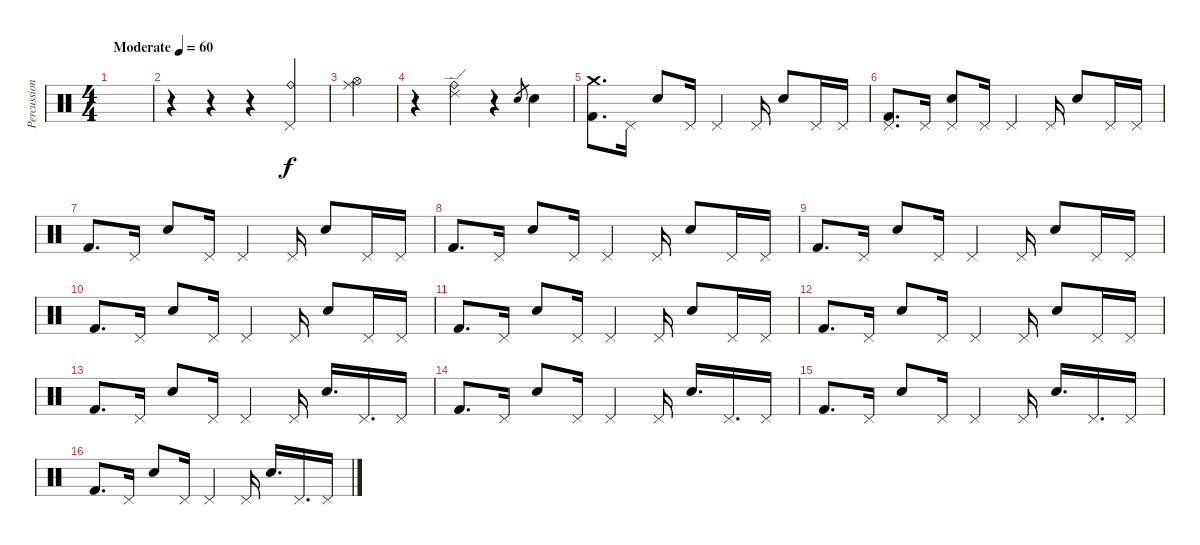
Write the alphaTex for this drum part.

\track ("Percussion" "Percussion") {instrument percussion}
\staff {score}
\articulation defaults
\ts (4 4)
\tempo (60 "Moderate")
\clef neutral
\ks c
|
r.4 r.4 r.4 ("Pedal Hi-Hat (hit)" "Ride (bell)").4 |
("Ride (middle)" "Hi-Hat (open)").4 |
r.4 ("Ride (edge) 2" "Ride (bell)").4 r.4 "Snare (hit) 2".8{gr} "Snare (hit) 2".4 |
("Crash medium (hit)" "Kick (hit) 2").8{d} "Pedal Hi-Hat (hit)".16 "Snare (hit) 2".8 "Pedal Hi-Hat (hit)".16 "Pedal Hi-Hat (hit)".4 "Pedal Hi-Hat (hit)".16 "Snare (hit) 2".8 "Pedal Hi-Hat (hit)".16 "Pedal Hi-Hat (hit)".16 |
("Pedal Hi-Hat (hit)" "Kick (hit) 2").8{d} "Pedal Hi-Hat (hit)".16 ("Pedal Hi-Hat (hit)" "Snare (hit) 2").8 "Pedal Hi-Hat (hit)".16 "Pedal Hi-Hat (hit)".4 "Pedal Hi-Hat (hit)".16 "Snare (hit) 2".8 "Pedal Hi-Hat (hit)".16 "Pedal Hi-Hat (hit)".16 |
"Kick (hit) 2".8{d} "Pedal Hi-Hat (hit)".16 "Snare (hit) 2".8 "Pedal Hi-Hat (hit)".16 "Pedal Hi-Hat (hit)".4 "Pedal Hi-Hat (hit)".16 "Snare (hit) 2".8 "Pedal Hi-Hat (hit)".16 "Pedal Hi-Hat (hit)".16 |
"Kick (hit) 2".8{d} "Pedal Hi-Hat (hit)".16 "Snare (hit) 2".8 "Pedal Hi-Hat (hit)".16 "Pedal Hi-Hat (hit)".4 "Pedal Hi-Hat (hit)".16 "Snare (hit) 2".8 "Pedal Hi-Hat (hit)".16 "Pedal Hi-Hat (hit)".16 |
"Kick (hit) 2".8{d} "Pedal Hi-Hat (hit)".16 "Snare (hit) 2".8 "Pedal Hi-Hat (hit)".16 "Pedal Hi-Hat (hit)".4 "Pedal Hi-Hat (hit)".16 "Snare (hit) 2".8 "Pedal Hi-Hat (hit)".16 "Pedal Hi-Hat (hit)".16 |
"Kick (hit) 2".8{d} "Pedal Hi-Hat (hit)".16 "Snare (hit) 2".8 "Pedal Hi-Hat (hit)".16 "Pedal Hi-Hat (hit)".4 "Pedal Hi-Hat (hit)".16 "Snare (hit) 2".8 "Pedal Hi-Hat (hit)".16 "Pedal Hi-Hat (hit)".16 |
"Kick (hit) 2".8{d} "Pedal Hi-Hat (hit)".16 "Snare (hit) 2".8 "Pedal Hi-Hat (hit)".16 "Pedal Hi-Hat (hit)".4 "Pedal Hi-Hat (hit)".16 "Snare (hit) 2".8 "Pedal Hi-Hat (hit)".16 "Pedal Hi-Hat (hit)".16 |
"Kick (hit) 2".8{d} "Pedal Hi-Hat (hit)".16 "Snare (hit) 2".8 "Pedal Hi-Hat (hit)".16 "Pedal Hi-Hat (hit)".4 "Pedal Hi-Hat (hit)".16 "Snare (hit) 2".8 "Pedal Hi-Hat (hit)".16 "Pedal Hi-Hat (hit)".16 |
"Kick (hit) 2".8{d} "Pedal Hi-Hat (hit)".16 "Snare (hit) 2".8 "Pedal Hi-Hat (hit)".16 "Pedal Hi-Hat (hit)".4 "Pedal Hi-Hat (hit)".16 "Snare (hit) 2".16{d} "Pedal Hi-Hat (hit)".16{d} "Pedal Hi-Hat (hit)".16 |
"Kick (hit) 2".8{d} "Pedal Hi-Hat (hit)".16 "Snare (hit) 2".8 "Pedal Hi-Hat (hit)".16 "Pedal Hi-Hat (hit)".4 "Pedal Hi-Hat (hit)".16 "Snare (hit) 2".16{d} "Pedal Hi-Hat (hit)".16{d} "Pedal Hi-Hat (hit)".16 |
"Kick (hit) 2".8{d} "Pedal Hi-Hat (hit)".16 "Snare (hit) 2".8 "Pedal Hi-Hat (hit)".16 "Pedal Hi-Hat (hit)".4 "Pedal Hi-Hat (hit)".16 "Snare (hit) 2".16{d} "Pedal Hi-Hat (hit)".16{d} "Pedal Hi-Hat (hit)".16 |
"Kick (hit) 2".8{d} "Pedal Hi-Hat (hit)".16 "Snare (hit) 2".8 "Pedal Hi-Hat (hit)".16 "Pedal Hi-Hat (hit)".4 "Pedal Hi-Hat (hit)".16 "Snare (hit) 2".16{d} "Pedal Hi-Hat (hit)".16{d} "Pedal Hi-Hat (hit)".16
